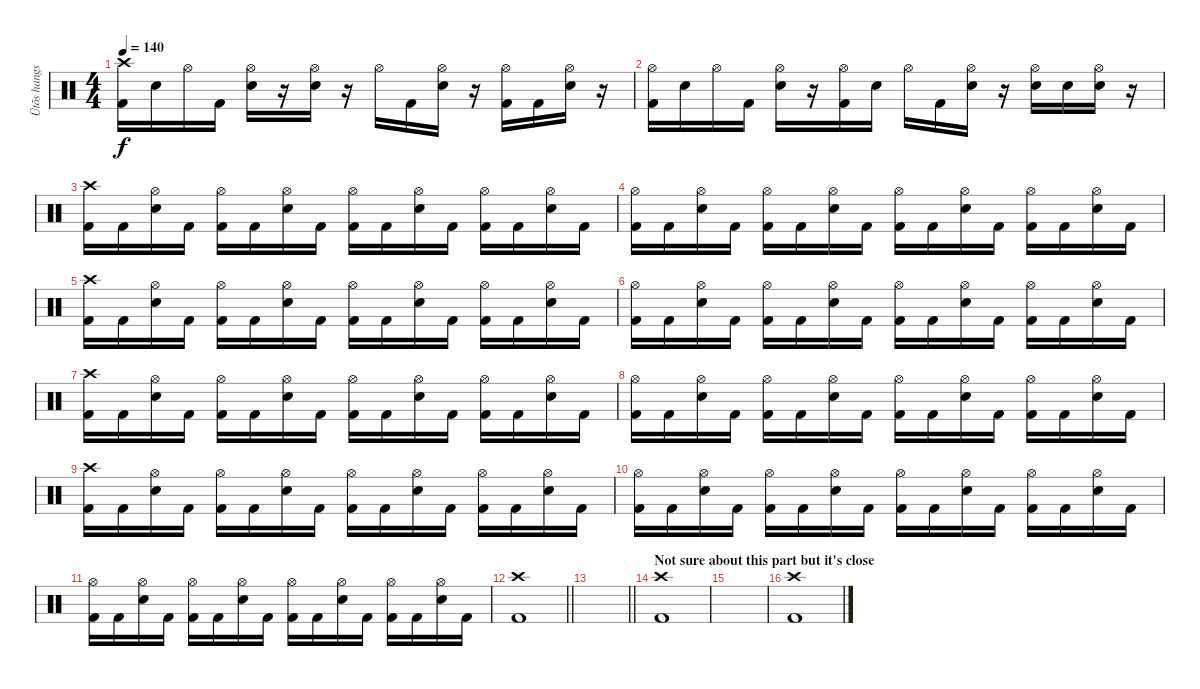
\track ("Ütõs hangszer" "Ütõs hangs") {instrument percussion}
\staff {score}
\articulation defaults
\ts (4 4)
\tempo 140
\clef neutral
\ks c
("Crash high (hit)" "Kick (hit) 2").16{dy f} "Snare (hit) 2".16 "Hi-Hat (open)".16 "Kick (hit) 2".16 ("Hi-Hat (open)" "Snare (hit) 2").16 r.16 ("Hi-Hat (open)" "Snare (hit) 2").16 r.16 "Hi-Hat (open)".16 "Kick (hit) 2".16 ("Hi-Hat (open)" "Snare (hit) 2").16 r.16 ("Hi-Hat (open)" "Kick (hit) 2").16 "Kick (hit) 2".16 ("Hi-Hat (open)" "Snare (hit) 2").16 r.16 |
("Hi-Hat (open)" "Kick (hit) 2").16 "Snare (hit) 2".16 "Hi-Hat (open)".16 "Kick (hit) 2".16 ("Hi-Hat (open)" "Snare (hit) 2").16 r.16 ("Hi-Hat (open)" "Kick (hit) 2").16 "Snare (hit) 2".16 "Hi-Hat (open)".16 "Kick (hit) 2".16 ("Hi-Hat (open)" "Snare (hit) 2").16 r.16 ("Hi-Hat (open)" "Snare (hit) 2").16 "Snare (hit) 2".16 ("Hi-Hat (open)" "Snare (hit) 2").16 r.16 |
("Crash high (hit)" "Kick (hit) 2").16 "Kick (hit) 2".16 ("Hi-Hat (open)" "Snare (hit) 2").16 "Kick (hit) 2".16 ("Hi-Hat (open)" "Kick (hit) 2").16 "Kick (hit) 2".16 ("Hi-Hat (open)" "Snare (hit) 2").16 "Kick (hit) 2".16 ("Hi-Hat (open)" "Kick (hit) 2").16 "Kick (hit) 2".16 ("Hi-Hat (open)" "Snare (hit) 2").16 "Kick (hit) 2".16 ("Hi-Hat (open)" "Kick (hit) 2").16 "Kick (hit) 2".16 ("Hi-Hat (open)" "Snare (hit) 2").16 "Kick (hit) 2".16 |
("Hi-Hat (open)" "Kick (hit) 2").16 "Kick (hit) 2".16 ("Hi-Hat (open)" "Snare (hit) 2").16 "Kick (hit) 2".16 ("Hi-Hat (open)" "Kick (hit) 2").16 "Kick (hit) 2".16 ("Hi-Hat (open)" "Snare (hit) 2").16 "Kick (hit) 2".16 ("Hi-Hat (open)" "Kick (hit) 2").16 "Kick (hit) 2".16 ("Hi-Hat (open)" "Snare (hit) 2").16 "Kick (hit) 2".16 ("Hi-Hat (open)" "Kick (hit) 2").16 "Kick (hit) 2".16 ("Hi-Hat (open)" "Snare (hit) 2").16 "Kick (hit) 2".16 |
("Crash high (hit)" "Kick (hit) 2").16 "Kick (hit) 2".16 ("Hi-Hat (open)" "Snare (hit) 2").16 "Kick (hit) 2".16 ("Hi-Hat (open)" "Kick (hit) 2").16 "Kick (hit) 2".16 ("Hi-Hat (open)" "Snare (hit) 2").16 "Kick (hit) 2".16 ("Hi-Hat (open)" "Kick (hit) 2").16 "Kick (hit) 2".16 ("Hi-Hat (open)" "Snare (hit) 2").16 "Kick (hit) 2".16 ("Hi-Hat (open)" "Kick (hit) 2").16 "Kick (hit) 2".16 ("Hi-Hat (open)" "Snare (hit) 2").16 "Kick (hit) 2".16 |
("Hi-Hat (open)" "Kick (hit) 2").16 "Kick (hit) 2".16 ("Hi-Hat (open)" "Snare (hit) 2").16 "Kick (hit) 2".16 ("Hi-Hat (open)" "Kick (hit) 2").16 "Kick (hit) 2".16 ("Hi-Hat (open)" "Snare (hit) 2").16 "Kick (hit) 2".16 ("Hi-Hat (open)" "Kick (hit) 2").16 "Kick (hit) 2".16 ("Hi-Hat (open)" "Snare (hit) 2").16 "Kick (hit) 2".16 ("Hi-Hat (open)" "Kick (hit) 2").16 "Kick (hit) 2".16 ("Hi-Hat (open)" "Snare (hit) 2").16 "Kick (hit) 2".16 |
("Crash high (hit)" "Kick (hit) 2").16 "Kick (hit) 2".16 ("Hi-Hat (open)" "Snare (hit) 2").16 "Kick (hit) 2".16 ("Hi-Hat (open)" "Kick (hit) 2").16 "Kick (hit) 2".16 ("Hi-Hat (open)" "Snare (hit) 2").16 "Kick (hit) 2".16 ("Hi-Hat (open)" "Kick (hit) 2").16 "Kick (hit) 2".16 ("Hi-Hat (open)" "Snare (hit) 2").16 "Kick (hit) 2".16 ("Hi-Hat (open)" "Kick (hit) 2").16 "Kick (hit) 2".16 ("Hi-Hat (open)" "Snare (hit) 2").16 "Kick (hit) 2".16 |
("Hi-Hat (open)" "Kick (hit) 2").16 "Kick (hit) 2".16 ("Hi-Hat (open)" "Snare (hit) 2").16 "Kick (hit) 2".16 ("Hi-Hat (open)" "Kick (hit) 2").16 "Kick (hit) 2".16 ("Hi-Hat (open)" "Snare (hit) 2").16 "Kick (hit) 2".16 ("Hi-Hat (open)" "Kick (hit) 2").16 "Kick (hit) 2".16 ("Hi-Hat (open)" "Snare (hit) 2").16 "Kick (hit) 2".16 ("Hi-Hat (open)" "Kick (hit) 2").16 "Kick (hit) 2".16 ("Hi-Hat (open)" "Snare (hit) 2").16 "Kick (hit) 2".16 |
("Crash high (hit)" "Kick (hit) 2").16 "Kick (hit) 2".16 ("Hi-Hat (open)" "Snare (hit) 2").16 "Kick (hit) 2".16 ("Hi-Hat (open)" "Kick (hit) 2").16 "Kick (hit) 2".16 ("Hi-Hat (open)" "Snare (hit) 2").16 "Kick (hit) 2".16 ("Hi-Hat (open)" "Kick (hit) 2").16 "Kick (hit) 2".16 ("Hi-Hat (open)" "Snare (hit) 2").16 "Kick (hit) 2".16 ("Hi-Hat (open)" "Kick (hit) 2").16 "Kick (hit) 2".16 ("Hi-Hat (open)" "Snare (hit) 2").16 "Kick (hit) 2".16 |
("Hi-Hat (open)" "Kick (hit) 2").16 "Kick (hit) 2".16 ("Hi-Hat (open)" "Snare (hit) 2").16 "Kick (hit) 2".16 ("Hi-Hat (open)" "Kick (hit) 2").16 "Kick (hit) 2".16 ("Hi-Hat (open)" "Snare (hit) 2").16 "Kick (hit) 2".16 ("Hi-Hat (open)" "Kick (hit) 2").16 "Kick (hit) 2".16 ("Hi-Hat (open)" "Snare (hit) 2").16 "Kick (hit) 2".16 ("Hi-Hat (open)" "Kick (hit) 2").16 "Kick (hit) 2".16 ("Hi-Hat (open)" "Snare (hit) 2").16 "Kick (hit) 2".16 |
("Hi-Hat (open)" "Kick (hit) 2").16 "Kick (hit) 2".16 ("Hi-Hat (open)" "Snare (hit) 2").16 "Kick (hit) 2".16 ("Hi-Hat (open)" "Kick (hit) 2").16 "Kick (hit) 2".16 ("Hi-Hat (open)" "Snare (hit) 2").16 "Kick (hit) 2".16 ("Hi-Hat (open)" "Kick (hit) 2").16 "Kick (hit) 2".16 ("Hi-Hat (open)" "Snare (hit) 2").16 "Kick (hit) 2".16 ("Hi-Hat (open)" "Kick (hit) 2").16 "Kick (hit) 2".16 ("Hi-Hat (open)" "Snare (hit) 2").16 "Kick (hit) 2".16 |
\barLineRight lightlight
("Crash high (hit)" "Kick (hit) 2").1 |
\barLineRight lightlight
|
\section ("" "Not sure about this part but it's close")
("Crash high (hit)" "Kick (hit) 2").1 |
|
("Crash high (hit)" "Kick (hit) 2").1
